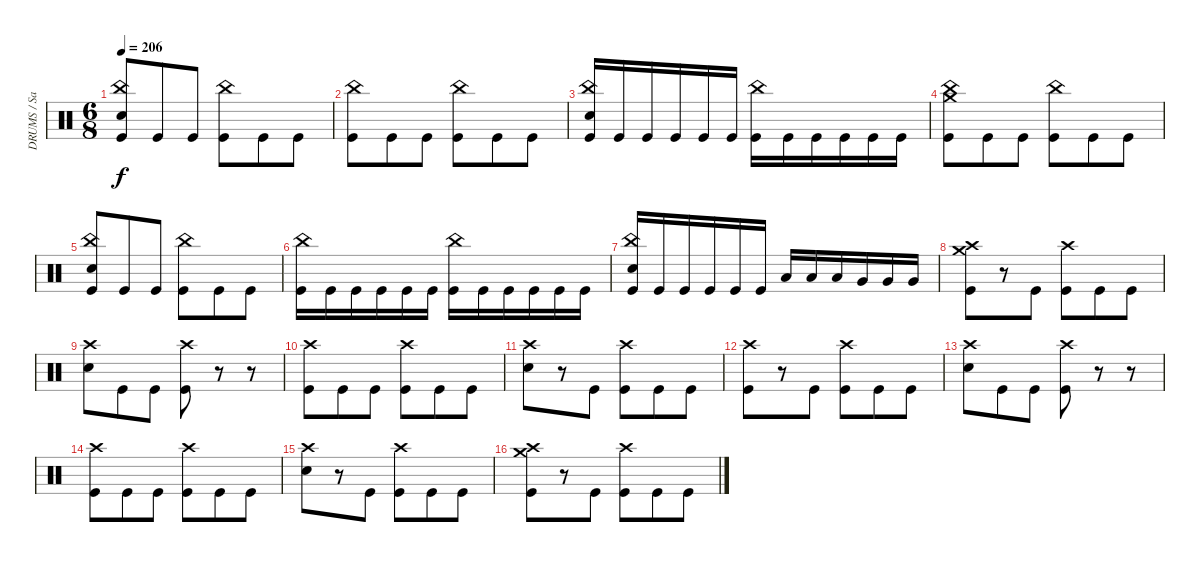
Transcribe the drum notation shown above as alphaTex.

\track ("DRUMS / Sasha" "DRUMS / Sa") {instrument percussion}
\staff {score}
\articulation defaults
\ts (6 8)
\tempo 206
\clef neutral
\ks c
("Kick (hit)" "China (hit)" "Snare (hit) 2").8{dy f} "Kick (hit)".8 "Kick (hit)".8 ("Kick (hit)" "China (hit)").8 "Kick (hit)".8 "Kick (hit)".8 |
("Kick (hit)" "China (hit)").8 "Kick (hit)".8 "Kick (hit)".8 ("Kick (hit)" "China (hit)").8 "Kick (hit)".8 "Kick (hit)".8 |
("Kick (hit)" "China (hit)" "Snare (hit) 2").16 "Kick (hit)".16 "Kick (hit)".16 "Kick (hit)".16 "Kick (hit)".16 "Kick (hit)".16 ("Kick (hit)" "China (hit)").16 "Kick (hit)".16 "Kick (hit)".16 "Kick (hit)".16 "Kick (hit)".16 "Kick (hit)".16 |
("Kick (hit)" "China (hit)" "Crash medium (hit)").8 "Kick (hit)".8 "Kick (hit)".8 ("Kick (hit)" "China (hit)").8 "Kick (hit)".8 "Kick (hit)".8 |
("Kick (hit)" "China (hit)" "Snare (hit) 2").8 "Kick (hit)".8 "Kick (hit)".8 ("Kick (hit)" "China (hit)").8 "Kick (hit)".8 "Kick (hit)".8 |
("Kick (hit)" "China (hit)").16 "Kick (hit)".16 "Kick (hit)".16 "Kick (hit)".16 "Kick (hit)".16 "Kick (hit)".16 ("Kick (hit)" "China (hit)").16 "Kick (hit)".16 "Kick (hit)".16 "Kick (hit)".16 "Kick (hit)".16 "Kick (hit)".16 |
("Kick (hit)" "China (hit)" "Snare (hit) 2").16 "Kick (hit)".16 "Kick (hit)".16 "Kick (hit)".16 "Kick (hit)".16 "Kick (hit)".16 "Low Tom (hit)".16 "Low Tom (hit)".16 "Low Tom (hit)".16 "Very Low Tom (hit)".16 "Very Low Tom (hit)".16 "Very Low Tom (hit)".16 |
("Kick (hit)" "Crash high (hit)" "Crash medium (hit)").8 r.8 "Kick (hit)".8 ("Kick (hit)" "Crash high (hit)").8 "Kick (hit)".8 "Kick (hit)".8 |
("Crash high (hit)" "Snare (hit) 2").8 "Kick (hit)".8 "Kick (hit)".8 ("Kick (hit)" "Crash high (hit)").8 r.8 r.8 |
("Kick (hit)" "Crash high (hit)").8 "Kick (hit)".8 "Kick (hit)".8 ("Kick (hit)" "Crash high (hit)").8 "Kick (hit)".8 "Kick (hit)".8 |
("Crash high (hit)" "Snare (hit) 2").8 r.8 "Kick (hit)".8 ("Crash high (hit)" "Kick (hit)").8 "Kick (hit)".8 "Kick (hit)".8 |
("Kick (hit)" "Crash high (hit)").8 r.8 "Kick (hit)".8 ("Kick (hit)" "Crash high (hit)").8 "Kick (hit)".8 "Kick (hit)".8 |
("Crash high (hit)" "Snare (hit) 2").8 "Kick (hit)".8 "Kick (hit)".8 ("Kick (hit)" "Crash high (hit)").8 r.8 r.8 |
("Kick (hit)" "Crash high (hit)").8 "Kick (hit)".8 "Kick (hit)".8 ("Kick (hit)" "Crash high (hit)").8 "Kick (hit)".8 "Kick (hit)".8 |
("Crash high (hit)" "Snare (hit) 2").8 r.8 "Kick (hit)".8 ("Crash high (hit)" "Kick (hit)").8 "Kick (hit)".8 "Kick (hit)".8 |
("Kick (hit)" "Crash high (hit)" "Crash medium (hit)").8 r.8 "Kick (hit)".8 ("Kick (hit)" "Crash high (hit)").8 "Kick (hit)".8 "Kick (hit)".8
